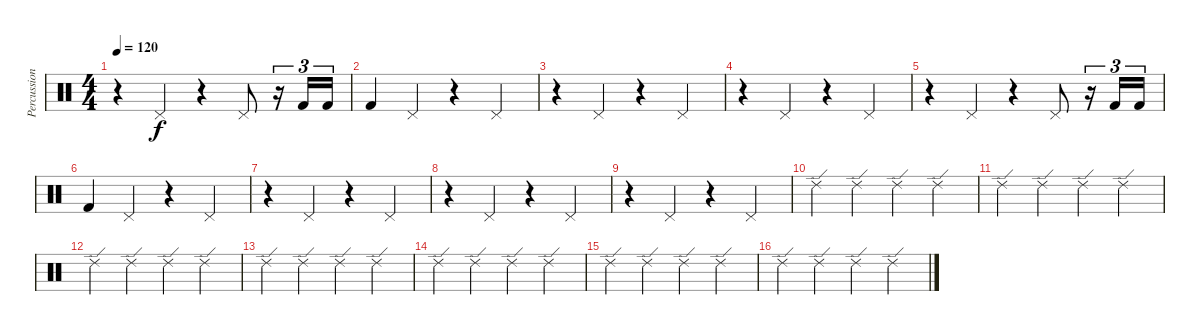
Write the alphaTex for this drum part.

\track ("Percussion" "Percussion") {instrument percussion}
\staff {score}
\articulation defaults
\ts (4 4)
\tempo 120
\clef neutral
\ks c
r.4{dy f} "Pedal Hi-Hat (hit)".4 r.4 "Pedal Hi-Hat (hit)".8 r.16{tu (3 2)} "Kick (hit) 2".16{tu (3 2)} "Kick (hit) 2".16{tu (3 2)} |
"Kick (hit) 2".4 "Pedal Hi-Hat (hit)".4 r.4 "Pedal Hi-Hat (hit)".4 |
r.4 "Pedal Hi-Hat (hit)".4 r.4 "Pedal Hi-Hat (hit)".4 |
r.4 "Pedal Hi-Hat (hit)".4 r.4 "Pedal Hi-Hat (hit)".4 |
r.4 "Pedal Hi-Hat (hit)".4 r.4 "Pedal Hi-Hat (hit)".8 r.16{tu (3 2)} "Kick (hit) 2".16{tu (3 2)} "Kick (hit) 2".16{tu (3 2)} |
"Kick (hit) 2".4 "Pedal Hi-Hat (hit)".4 r.4 "Pedal Hi-Hat (hit)".4 |
r.4 "Pedal Hi-Hat (hit)".4 r.4 "Pedal Hi-Hat (hit)".4 |
r.4 "Pedal Hi-Hat (hit)".4 r.4 "Pedal Hi-Hat (hit)".4 |
r.4 "Pedal Hi-Hat (hit)".4 r.4 "Pedal Hi-Hat (hit)".4 |
"Ride (edge) 2".4 "Ride (edge) 2".4 "Ride (edge) 2".4 "Ride (edge) 2".4 |
"Ride (edge) 2".4 "Ride (edge) 2".4 "Ride (edge) 2".4 "Ride (edge) 2".4 |
"Ride (edge) 2".4 "Ride (edge) 2".4 "Ride (edge) 2".4 "Ride (edge) 2".4 |
"Ride (edge) 2".4 "Ride (edge) 2".4 "Ride (edge) 2".4 "Ride (edge) 2".4 |
"Ride (edge) 2".4 "Ride (edge) 2".4 "Ride (edge) 2".4 "Ride (edge) 2".4 |
"Ride (edge) 2".4 "Ride (edge) 2".4 "Ride (edge) 2".4 "Ride (edge) 2".4 |
"Ride (edge) 2".4 "Ride (edge) 2".4 "Ride (edge) 2".4 "Ride (edge) 2".4
